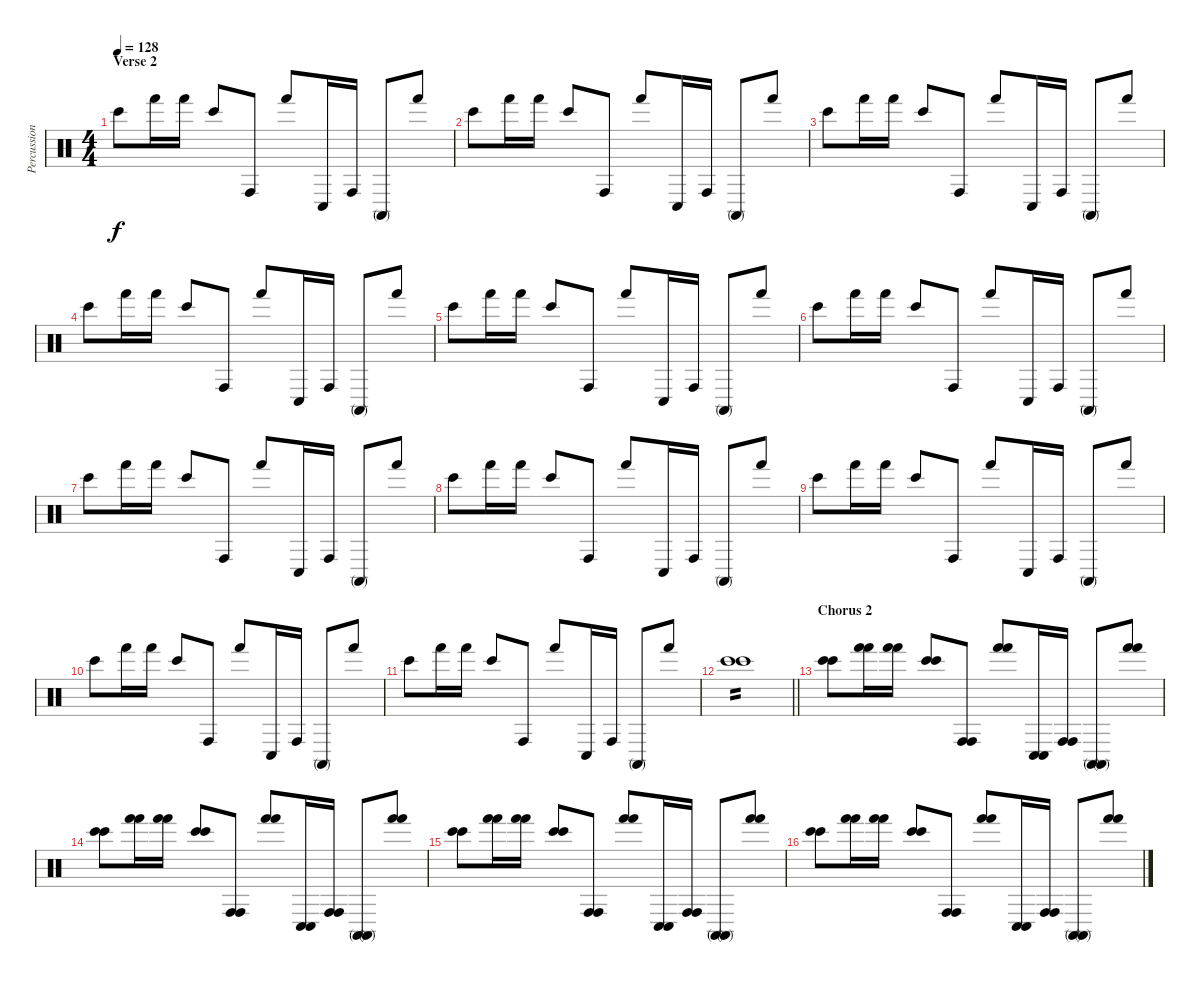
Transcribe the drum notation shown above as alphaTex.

\track ("Percussioni" "Percussion") {instrument percussion}
\staff {score}
\articulation defaults
\ts (4 4)
\section ("" "Verse 2")
\tempo 128
\clef neutral
\ks c "Bongo High (hit)".8{dy f} "Hand (hit)".16 "Hand (hit)".16 "Bongo High (hit)".8 "Conga high (hit)".8 "Hand (hit)".8 "Conga low (hit)".16 "Conga high (hit)".16 "Conga high (mute)".8 "Hand (hit)".8
|
"Bongo High (hit)".8 "Hand (hit)".16 "Hand (hit)".16 "Bongo High (hit)".8 "Conga high (hit)".8 "Hand (hit)".8 "Conga low (hit)".16 "Conga high (hit)".16 "Conga high (mute)".8 "Hand (hit)".8 |
"Bongo High (hit)".8 "Hand (hit)".16 "Hand (hit)".16 "Bongo High (hit)".8 "Conga high (hit)".8 "Hand (hit)".8 "Conga low (hit)".16 "Conga high (hit)".16 "Conga high (mute)".8 "Hand (hit)".8 |
"Bongo High (hit)".8 "Hand (hit)".16 "Hand (hit)".16 "Bongo High (hit)".8 "Conga high (hit)".8 "Hand (hit)".8 "Conga low (hit)".16 "Conga high (hit)".16 "Conga high (mute)".8 "Hand (hit)".8 |
"Bongo High (hit)".8 "Hand (hit)".16 "Hand (hit)".16 "Bongo High (hit)".8 "Conga high (hit)".8 "Hand (hit)".8 "Conga low (hit)".16 "Conga high (hit)".16 "Conga high (mute)".8 "Hand (hit)".8 |
"Bongo High (hit)".8 "Hand (hit)".16 "Hand (hit)".16 "Bongo High (hit)".8 "Conga high (hit)".8 "Hand (hit)".8 "Conga low (hit)".16 "Conga high (hit)".16 "Conga high (mute)".8 "Hand (hit)".8 |
"Bongo High (hit)".8 "Hand (hit)".16 "Hand (hit)".16 "Bongo High (hit)".8 "Conga high (hit)".8 "Hand (hit)".8 "Conga low (hit)".16 "Conga high (hit)".16 "Conga high (mute)".8 "Hand (hit)".8 |
"Bongo High (hit)".8 "Hand (hit)".16 "Hand (hit)".16 "Bongo High (hit)".8 "Conga high (hit)".8 "Hand (hit)".8 "Conga low (hit)".16 "Conga high (hit)".16 "Conga high (mute)".8 "Hand (hit)".8 |
"Bongo High (hit)".8 "Hand (hit)".16 "Hand (hit)".16 "Bongo High (hit)".8 "Conga high (hit)".8 "Hand (hit)".8 "Conga low (hit)".16 "Conga high (hit)".16 "Conga high (mute)".8 "Hand (hit)".8 |
"Bongo High (hit)".8 "Hand (hit)".16 "Hand (hit)".16 "Bongo High (hit)".8 "Conga high (hit)".8 "Hand (hit)".8 "Conga low (hit)".16 "Conga high (hit)".16 "Conga high (mute)".8 "Hand (hit)".8 |
"Bongo High (hit)".8 "Hand (hit)".16 "Hand (hit)".16 "Bongo High (hit)".8 "Conga high (hit)".8 "Hand (hit)".8 "Conga low (hit)".16 "Conga high (hit)".16 "Conga high (mute)".8 "Hand (hit)".8 |
\barLineRight lightlight
("Bongo High (hit)" "Bongo High (hit)").1{tp 2} |
\section ("" "Chorus 2")
("Bongo High (hit)" "Bongo High (hit)").8 ("Hand (hit)" "Hand (hit)").16 ("Hand (hit)" "Hand (hit)").16 ("Bongo High (hit)" "Bongo High (hit)").8 ("Conga high (hit)" "Conga high (hit)").8 ("Hand (hit)" "Hand (hit)").8 ("Conga low (hit)" "Conga low (hit)").16 ("Conga high (hit)" "Conga high (hit)").16 ("Conga high (mute)" "Conga high (mute)").8 ("Hand (hit)" "Hand (hit)").8 |
("Bongo High (hit)" "Bongo High (hit)").8 ("Hand (hit)" "Hand (hit)").16 ("Hand (hit)" "Hand (hit)").16 ("Bongo High (hit)" "Bongo High (hit)").8 ("Conga high (hit)" "Conga high (hit)").8 ("Hand (hit)" "Hand (hit)").8 ("Conga low (hit)" "Conga low (hit)").16 ("Conga high (hit)" "Conga high (hit)").16 ("Conga high (mute)" "Conga high (mute)").8 ("Hand (hit)" "Hand (hit)").8 |
("Bongo High (hit)" "Bongo High (hit)").8 ("Hand (hit)" "Hand (hit)").16 ("Hand (hit)" "Hand (hit)").16 ("Bongo High (hit)" "Bongo High (hit)").8 ("Conga high (hit)" "Conga high (hit)").8 ("Hand (hit)" "Hand (hit)").8 ("Conga low (hit)" "Conga low (hit)").16 ("Conga high (hit)" "Conga high (hit)").16 ("Conga high (mute)" "Conga high (mute)").8 ("Hand (hit)" "Hand (hit)").8 |
("Bongo High (hit)" "Bongo High (hit)").8 ("Hand (hit)" "Hand (hit)").16 ("Hand (hit)" "Hand (hit)").16 ("Bongo High (hit)" "Bongo High (hit)").8 ("Conga high (hit)" "Conga high (hit)").8 ("Hand (hit)" "Hand (hit)").8 ("Conga low (hit)" "Conga low (hit)").16 ("Conga high (hit)" "Conga high (hit)").16 ("Conga high (mute)" "Conga high (mute)").8 ("Hand (hit)" "Hand (hit)").8
